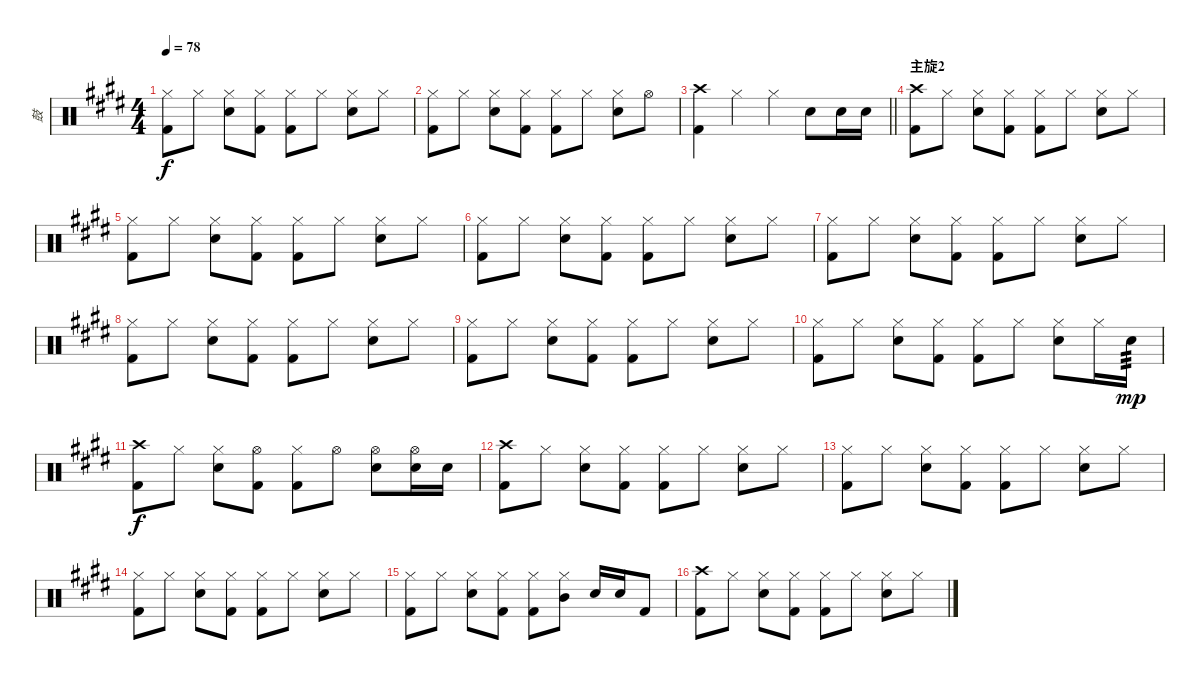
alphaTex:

\track ("鼓" "鼓") {instrument percussion}
\staff {score}
\articulation defaults
\ts (4 4)
\tempo 78
\clef neutral
\ks e
("Hi-Hat (closed)" "Kick (hit) 2").8{dy f} "Hi-Hat (closed)".8 ("Hi-Hat (closed)" "Electric Snare (hit)").8 ("Hi-Hat (closed)" "Kick (hit) 2").8 ("Hi-Hat (closed)" "Kick (hit) 2").8 "Hi-Hat (closed)".8 ("Hi-Hat (closed)" "Electric Snare (hit)").8 "Hi-Hat (closed)".8 |
("Hi-Hat (closed)" "Kick (hit) 2").8 "Hi-Hat (closed)".8 ("Hi-Hat (closed)" "Electric Snare (hit)").8 ("Hi-Hat (closed)" "Kick (hit) 2").8 ("Hi-Hat (closed)" "Kick (hit) 2").8 "Hi-Hat (closed)".8 ("Hi-Hat (closed)" "Electric Snare (hit)").8 "Hi-Hat (open)".8 |
\barLineRight lightlight
("Crash high (hit)" "Kick (hit) 2").4 "Hi-Hat (closed)".4 "Hi-Hat (closed)".4 "Electric Snare (hit)".8 "Electric Snare (hit)".16 "Electric Snare (hit)".16 |
\section ("" "主旋2")
("Crash high (hit)" "Kick (hit) 2").8 "Hi-Hat (closed)".8 ("Hi-Hat (closed)" "Electric Snare (hit)").8 ("Hi-Hat (closed)" "Kick (hit) 2").8 ("Hi-Hat (closed)" "Kick (hit) 2").8 "Hi-Hat (closed)".8 ("Hi-Hat (closed)" "Electric Snare (hit)").8 "Hi-Hat (closed)".8 |
("Hi-Hat (closed)" "Kick (hit) 2").8 "Hi-Hat (closed)".8 ("Hi-Hat (closed)" "Electric Snare (hit)").8 ("Hi-Hat (closed)" "Kick (hit) 2").8 ("Hi-Hat (closed)" "Kick (hit) 2").8 "Hi-Hat (closed)".8 ("Hi-Hat (closed)" "Electric Snare (hit)").8 "Hi-Hat (closed)".8 |
("Hi-Hat (closed)" "Kick (hit) 2").8 "Hi-Hat (closed)".8 ("Hi-Hat (closed)" "Electric Snare (hit)").8 ("Hi-Hat (closed)" "Kick (hit) 2").8 ("Hi-Hat (closed)" "Kick (hit) 2").8 "Hi-Hat (closed)".8 ("Hi-Hat (closed)" "Electric Snare (hit)").8 "Hi-Hat (closed)".8 |
("Hi-Hat (closed)" "Kick (hit) 2").8 "Hi-Hat (closed)".8 ("Hi-Hat (closed)" "Electric Snare (hit)").8 ("Hi-Hat (closed)" "Kick (hit) 2").8 ("Hi-Hat (closed)" "Kick (hit) 2").8 "Hi-Hat (closed)".8 ("Hi-Hat (closed)" "Electric Snare (hit)").8 "Hi-Hat (closed)".8 |
("Hi-Hat (closed)" "Kick (hit) 2").8 "Hi-Hat (closed)".8 ("Hi-Hat (closed)" "Electric Snare (hit)").8 ("Hi-Hat (closed)" "Kick (hit) 2").8 ("Hi-Hat (closed)" "Kick (hit) 2").8 "Hi-Hat (closed)".8 ("Hi-Hat (closed)" "Electric Snare (hit)").8 "Hi-Hat (closed)".8 |
("Hi-Hat (closed)" "Kick (hit) 2").8 "Hi-Hat (closed)".8 ("Hi-Hat (closed)" "Electric Snare (hit)").8 ("Hi-Hat (closed)" "Kick (hit) 2").8 ("Hi-Hat (closed)" "Kick (hit) 2").8 "Hi-Hat (closed)".8 ("Hi-Hat (closed)" "Electric Snare (hit)").8 "Hi-Hat (closed)".8 |
("Hi-Hat (closed)" "Kick (hit) 2").8 "Hi-Hat (closed)".8 ("Hi-Hat (closed)" "Electric Snare (hit)").8 ("Hi-Hat (closed)" "Kick (hit) 2").8 ("Hi-Hat (closed)" "Kick (hit) 2").8 "Hi-Hat (closed)".8 ("Hi-Hat (closed)" "Electric Snare (hit)").8 "Hi-Hat (closed)".16 "Electric Snare (hit)".16{tp 3 dy mp} |
("Crash high (hit)" "Kick (hit) 2").8{dy f} "Hi-Hat (closed)".8 ("Hi-Hat (closed)" "Electric Snare (hit)").8 ("Hi-Hat (open)" "Kick (hit) 2").8 ("Hi-Hat (closed)" "Kick (hit) 2").8 "Hi-Hat (open)".8 ("Hi-Hat (open)" "Electric Snare (hit)").8 ("Hi-Hat (open)" "Electric Snare (hit)").16 "Electric Snare (hit)".16 |
("Crash high (hit)" "Kick (hit) 2").8 "Hi-Hat (closed)".8 ("Hi-Hat (closed)" "Electric Snare (hit)").8 ("Hi-Hat (closed)" "Kick (hit) 2").8 ("Hi-Hat (closed)" "Kick (hit) 2").8 "Hi-Hat (closed)".8 ("Hi-Hat (closed)" "Electric Snare (hit)").8 "Hi-Hat (closed)".8 |
("Hi-Hat (closed)" "Kick (hit) 2").8 "Hi-Hat (closed)".8 ("Hi-Hat (closed)" "Electric Snare (hit)").8 ("Hi-Hat (closed)" "Kick (hit) 2").8 ("Hi-Hat (closed)" "Kick (hit) 2").8 "Hi-Hat (closed)".8 ("Hi-Hat (closed)" "Electric Snare (hit)").8 "Hi-Hat (closed)".8 |
("Hi-Hat (closed)" "Kick (hit) 2").8 "Hi-Hat (closed)".8 ("Hi-Hat (closed)" "Electric Snare (hit)").8 ("Hi-Hat (closed)" "Kick (hit) 2").8 ("Hi-Hat (closed)" "Kick (hit) 2").8 "Hi-Hat (closed)".8 ("Hi-Hat (closed)" "Electric Snare (hit)").8 "Hi-Hat (closed)".8 |
("Hi-Hat (closed)" "Kick (hit) 2").8 "Hi-Hat (closed)".8 ("Hi-Hat (closed)" "Electric Snare (hit)").8 ("Hi-Hat (closed)" "Kick (hit) 2").8 ("Hi-Hat (closed)" "Kick (hit) 2").8 ("Hi-Hat (closed)" "Mid Tom (hit)").8 "Electric Snare (hit)".16 "Electric Snare (hit)".16 "Kick (hit) 2".8 |
("Crash high (hit)" "Kick (hit) 2").8 "Hi-Hat (closed)".8 ("Hi-Hat (closed)" "Electric Snare (hit)").8 ("Hi-Hat (closed)" "Kick (hit) 2").8 ("Hi-Hat (closed)" "Kick (hit) 2").8 "Hi-Hat (closed)".8 ("Hi-Hat (closed)" "Electric Snare (hit)").8 "Hi-Hat (closed)".8
